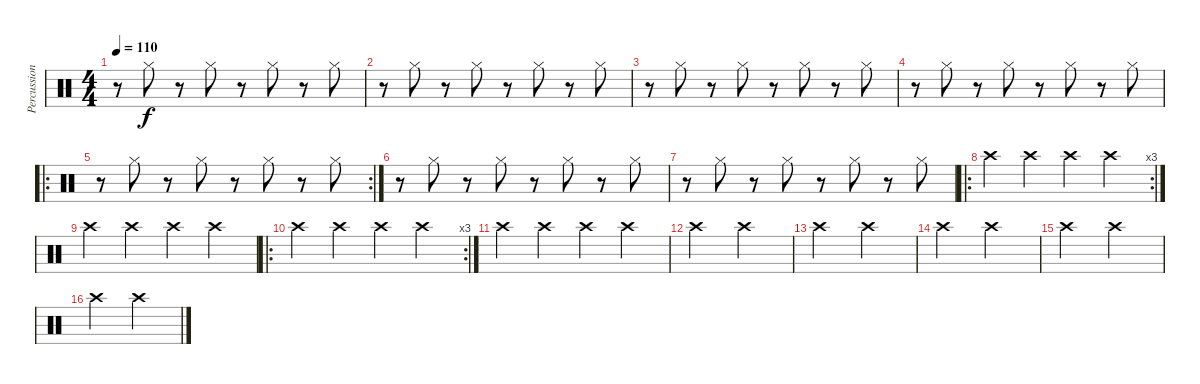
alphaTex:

\track ("Percussions" "Percussion") {instrument percussion}
\staff {score}
\articulation defaults
\ts (4 4)
\tempo 110
\clef neutral
\ks c
r.8{dy f} "Hi-Hat (closed)".8 r.8 "Hi-Hat (closed)".8 r.8 "Hi-Hat (closed)".8 r.8 "Hi-Hat (closed)".8 |
r.8 "Hi-Hat (closed)".8 r.8 "Hi-Hat (closed)".8 r.8 "Hi-Hat (closed)".8 r.8 "Hi-Hat (closed)".8 |
r.8 "Hi-Hat (closed)".8 r.8 "Hi-Hat (closed)".8 r.8 "Hi-Hat (closed)".8 r.8 "Hi-Hat (closed)".8 |
r.8 "Hi-Hat (closed)".8 r.8 "Hi-Hat (closed)".8 r.8 "Hi-Hat (closed)".8 r.8 "Hi-Hat (closed)".8 |
\ro
\rc 2
r.8 "Hi-Hat (closed)".8 r.8 "Hi-Hat (closed)".8 r.8 "Hi-Hat (closed)".8 r.8 "Hi-Hat (closed)".8 |
r.8 "Hi-Hat (closed)".8 r.8 "Hi-Hat (closed)".8 r.8 "Hi-Hat (closed)".8 r.8 "Hi-Hat (closed)".8 |
r.8 "Hi-Hat (closed)".8 r.8 "Hi-Hat (closed)".8 r.8 "Hi-Hat (closed)".8 r.8 "Hi-Hat (closed)".8 |
\ro
\rc 3 "Crash high (hit)".4 "Crash high (hit)".4 "Crash high (hit)".4 "Crash high (hit)".4
|
"Crash high (hit)".4 "Crash high (hit)".4 "Crash high (hit)".4 "Crash high (hit)".4 |
\ro
\rc 3 "Crash high (hit)".4 "Crash high (hit)".4 "Crash high (hit)".4 "Crash high (hit)".4
|
"Crash high (hit)".4 "Crash high (hit)".4 "Crash high (hit)".4 "Crash high (hit)".4 |
"Crash high (hit)".2 "Crash high (hit)".2 |
"Crash high (hit)".2 "Crash high (hit)".2 |
"Crash high (hit)".2 "Crash high (hit)".2 |
"Crash high (hit)".2 "Crash high (hit)".2 |
"Crash high (hit)".2 "Crash high (hit)".2
